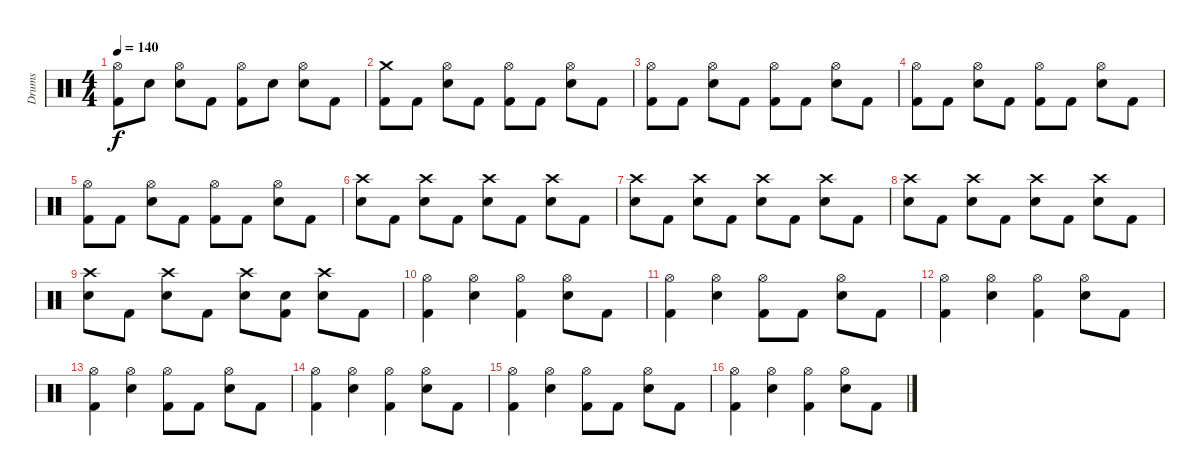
\track ("Drums" "Drums") {instrument percussion}
\staff {score}
\articulation defaults
\ts (4 4)
\tempo 140
\clef neutral
\ks c
("Hi-Hat (open)" "Kick (hit) 2").8{dy f} "Electric Snare (hit)".8 ("Hi-Hat (open)" "Electric Snare (hit)").8 "Kick (hit) 2".8 ("Hi-Hat (open)" "Kick (hit) 2").8 "Electric Snare (hit)".8 ("Hi-Hat (open)" "Electric Snare (hit)").8 "Kick (hit) 2".8 |
("Crash medium (hit)" "Kick (hit) 2").8 "Kick (hit) 2".8 ("Hi-Hat (open)" "Electric Snare (hit)").8 "Kick (hit) 2".8 ("Hi-Hat (open)" "Kick (hit) 2").8 "Kick (hit) 2".8 ("Hi-Hat (open)" "Electric Snare (hit)").8 "Kick (hit) 2".8 |
("Hi-Hat (open)" "Kick (hit) 2").8 "Kick (hit) 2".8 ("Hi-Hat (open)" "Electric Snare (hit)").8 "Kick (hit) 2".8 ("Hi-Hat (open)" "Kick (hit) 2").8 "Kick (hit) 2".8 ("Hi-Hat (open)" "Electric Snare (hit)").8 "Kick (hit) 2".8 |
("Hi-Hat (open)" "Kick (hit) 2").8 "Kick (hit) 2".8 ("Hi-Hat (open)" "Electric Snare (hit)").8 "Kick (hit) 2".8 ("Hi-Hat (open)" "Kick (hit) 2").8 "Kick (hit) 2".8 ("Hi-Hat (open)" "Electric Snare (hit)").8 "Kick (hit) 2".8 |
("Hi-Hat (open)" "Kick (hit) 2").8 "Kick (hit) 2".8 ("Hi-Hat (open)" "Electric Snare (hit)").8 "Kick (hit) 2".8 ("Hi-Hat (open)" "Kick (hit) 2").8 "Kick (hit) 2".8 ("Hi-Hat (open)" "Electric Snare (hit)").8 "Kick (hit) 2".8 |
("Crash high (hit)" "Electric Snare (hit)").8 "Kick (hit) 2".8 ("Crash high (hit)" "Electric Snare (hit)").8 "Kick (hit) 2".8 ("Crash high (hit)" "Electric Snare (hit)").8 "Kick (hit) 2".8 ("Crash high (hit)" "Electric Snare (hit)").8 "Kick (hit) 2".8 |
("Crash high (hit)" "Electric Snare (hit)").8 "Kick (hit) 2".8 ("Crash high (hit)" "Electric Snare (hit)").8 "Kick (hit) 2".8 ("Crash high (hit)" "Electric Snare (hit)").8 "Kick (hit) 2".8 ("Crash high (hit)" "Electric Snare (hit)").8 "Kick (hit) 2".8 |
("Crash high (hit)" "Electric Snare (hit)").8 "Kick (hit) 2".8 ("Crash high (hit)" "Electric Snare (hit)").8 "Kick (hit) 2".8 ("Crash high (hit)" "Electric Snare (hit)").8 "Kick (hit) 2".8 ("Crash high (hit)" "Electric Snare (hit)").8 "Kick (hit) 2".8 |
("Crash high (hit)" "Electric Snare (hit)").8 "Kick (hit) 2".8 ("Crash high (hit)" "Electric Snare (hit)").8 "Kick (hit) 2".8 ("Crash high (hit)" "Electric Snare (hit)").8 ("Electric Snare (hit)" "Kick (hit) 2").8 ("Crash high (hit)" "Electric Snare (hit)").8 "Kick (hit) 2".8 |
("Hi-Hat (open)" "Kick (hit) 2").4 ("Hi-Hat (open)" "Electric Snare (hit)").4 ("Hi-Hat (open)" "Kick (hit) 2").4 ("Hi-Hat (open)" "Electric Snare (hit)").8 "Kick (hit) 2".8 |
("Hi-Hat (open)" "Kick (hit) 2").4 ("Hi-Hat (open)" "Electric Snare (hit)").4 ("Hi-Hat (open)" "Kick (hit) 2").8 "Kick (hit) 2".8 ("Hi-Hat (open)" "Electric Snare (hit)").8 "Kick (hit) 2".8 |
("Hi-Hat (open)" "Kick (hit) 2").4 ("Hi-Hat (open)" "Electric Snare (hit)").4 ("Hi-Hat (open)" "Kick (hit) 2").4 ("Hi-Hat (open)" "Electric Snare (hit)").8 "Kick (hit) 2".8 |
("Hi-Hat (open)" "Kick (hit) 2").4 ("Hi-Hat (open)" "Electric Snare (hit)").4 ("Hi-Hat (open)" "Kick (hit) 2").8 "Kick (hit) 2".8 ("Hi-Hat (open)" "Electric Snare (hit)").8 "Kick (hit) 2".8 |
("Hi-Hat (open)" "Kick (hit) 2").4 ("Hi-Hat (open)" "Electric Snare (hit)").4 ("Hi-Hat (open)" "Kick (hit) 2").4 ("Hi-Hat (open)" "Electric Snare (hit)").8 "Kick (hit) 2".8 |
("Hi-Hat (open)" "Kick (hit) 2").4 ("Hi-Hat (open)" "Electric Snare (hit)").4 ("Hi-Hat (open)" "Kick (hit) 2").8 "Kick (hit) 2".8 ("Hi-Hat (open)" "Electric Snare (hit)").8 "Kick (hit) 2".8 |
("Hi-Hat (open)" "Kick (hit) 2").4 ("Hi-Hat (open)" "Electric Snare (hit)").4 ("Hi-Hat (open)" "Kick (hit) 2").4 ("Hi-Hat (open)" "Electric Snare (hit)").8 "Kick (hit) 2".8
